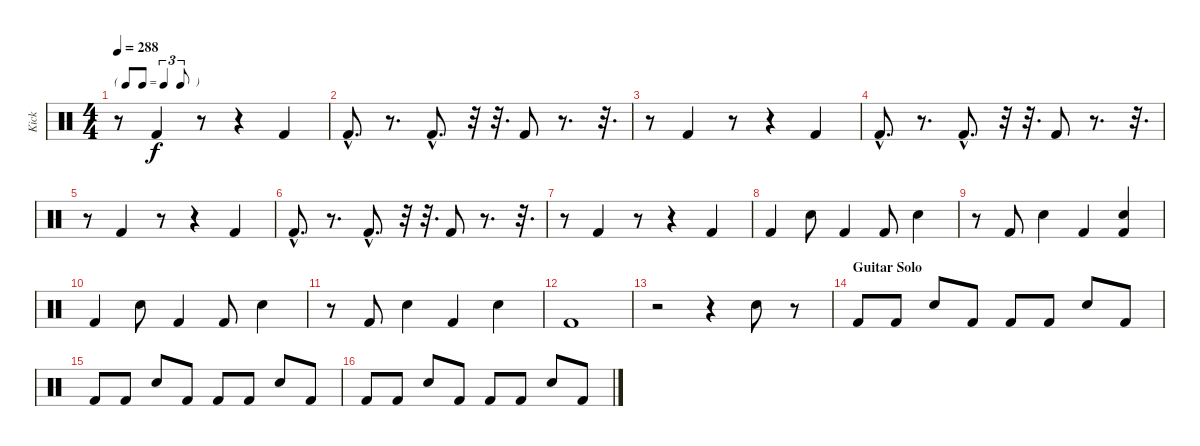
\track ("Kick" "Kick") {instrument percussion}
\staff {score}
\articulation defaults
\ts (4 4)
\tf triplet8th
\tempo 288
\clef neutral
\ks c
r.8{dy f} "Kick (hit) 2".4 r.8 r.4 "Kick (hit) 2".4 |
"Kick (hit) 2"{hac}.8{d} r.8{d} "Kick (hit) 2"{hac}.8{d} r.32 r.32{d} "Kick (hit) 2".8 r.8{d} r.32{d} |
r.8 "Kick (hit) 2".4 r.8 r.4 "Kick (hit) 2".4 |
"Kick (hit) 2"{hac}.8{d} r.8{d} "Kick (hit) 2"{hac}.8{d} r.32 r.32{d} "Kick (hit) 2".8 r.8{d} r.32{d} |
r.8 "Kick (hit) 2".4 r.8 r.4 "Kick (hit) 2".4 |
"Kick (hit) 2"{hac}.8{d} r.8{d} "Kick (hit) 2"{hac}.8{d} r.32 r.32{d} "Kick (hit) 2".8 r.8{d} r.32{d} |
r.8 "Kick (hit) 2".4 r.8 r.4 "Kick (hit) 2".4 |
"Kick (hit) 2".4 "Snare (hit) 2".8 "Kick (hit) 2".4 "Kick (hit) 2".8 "Snare (hit) 2".4 |
r.8 "Kick (hit) 2".8 "Snare (hit) 2".4 "Kick (hit) 2".4 ("Snare (hit) 2" "Kick (hit) 2").4 |
"Kick (hit) 2".4 "Snare (hit) 2".8 "Kick (hit) 2".4 "Kick (hit) 2".8 "Snare (hit) 2".4 |
r.8 "Kick (hit) 2".8 "Snare (hit) 2".4 "Kick (hit) 2".4 "Snare (hit) 2".4 |
"Kick (hit) 2".1 |
r.2 r.4 "Snare (hit) 2".8 r.8 |
\section ("" "Guitar Solo")
"Kick (hit) 2".8 "Kick (hit) 2".8 "Snare (hit) 2".8 "Kick (hit) 2".8 "Kick (hit) 2".8 "Kick (hit) 2".8 "Snare (hit) 2".8 "Kick (hit) 2".8 |
"Kick (hit) 2".8 "Kick (hit) 2".8 "Snare (hit) 2".8 "Kick (hit) 2".8 "Kick (hit) 2".8 "Kick (hit) 2".8 "Snare (hit) 2".8 "Kick (hit) 2".8 |
"Kick (hit) 2".8 "Kick (hit) 2".8 "Snare (hit) 2".8 "Kick (hit) 2".8 "Kick (hit) 2".8 "Kick (hit) 2".8 "Snare (hit) 2".8 "Kick (hit) 2".8
